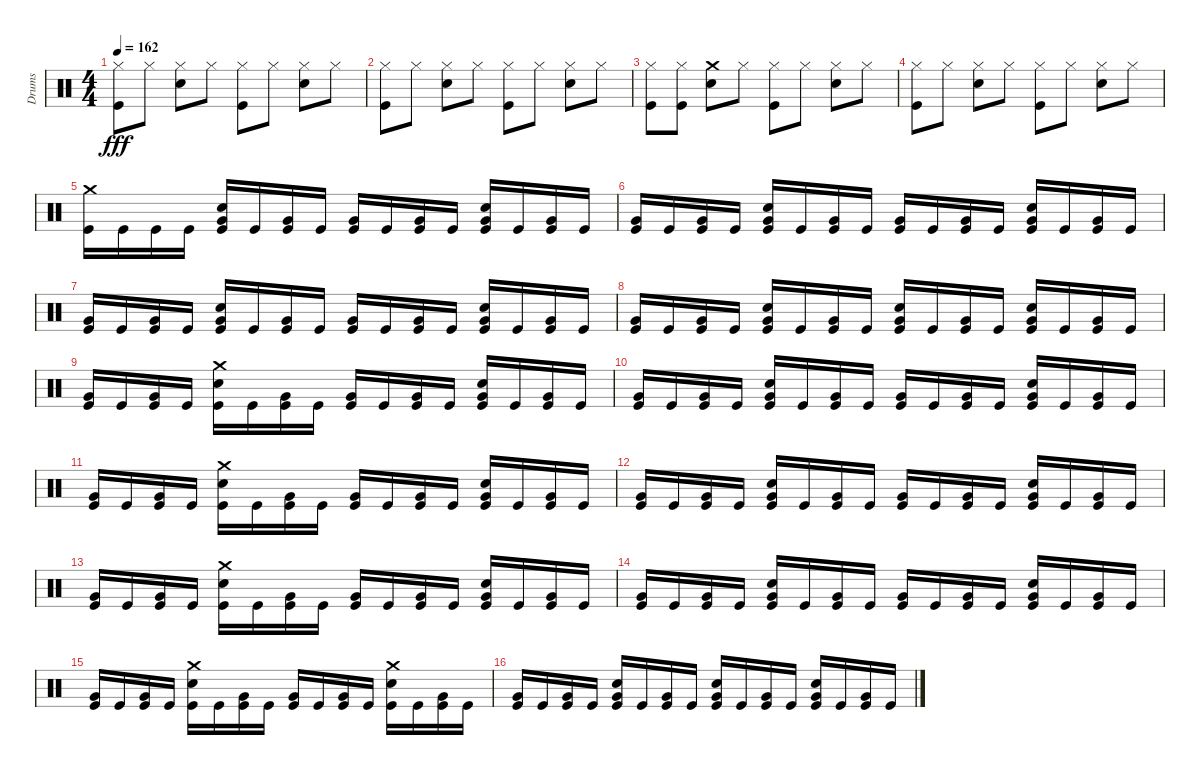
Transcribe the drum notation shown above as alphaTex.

\track ("Drums" "Drums") {instrument percussion}
\staff {score}
\articulation defaults
\ts (4 4)
\tempo 162
\clef neutral
\ks c
("Hi-Hat (closed)" "Kick (hit)").8{dy fff} "Hi-Hat (closed)".8 ("Snare (hit) 2" "Hi-Hat (closed)").8 "Hi-Hat (closed)".8 ("Kick (hit)" "Hi-Hat (closed)").8 "Hi-Hat (closed)".8 ("Snare (hit) 2" "Hi-Hat (closed)").8 "Hi-Hat (closed)".8 |
("Hi-Hat (closed)" "Kick (hit)").8 "Hi-Hat (closed)".8 ("Snare (hit) 2" "Hi-Hat (closed)").8 "Hi-Hat (closed)".8 ("Kick (hit)" "Hi-Hat (closed)").8 "Hi-Hat (closed)".8 ("Snare (hit) 2" "Hi-Hat (closed)").8 "Hi-Hat (closed)".8 |
("Hi-Hat (closed)" "Kick (hit)").8 ("Kick (hit)" "Hi-Hat (closed)").8 ("Crash medium (hit)" "Snare (hit) 2").8 "Hi-Hat (closed)".8 ("Kick (hit)" "Hi-Hat (closed)").8 "Hi-Hat (closed)".8 ("Snare (hit) 2" "Hi-Hat (closed)").8 "Hi-Hat (closed)".8 |
("Hi-Hat (closed)" "Kick (hit)").8 "Hi-Hat (closed)".8 ("Snare (hit) 2" "Hi-Hat (closed)").8 "Hi-Hat (closed)".8 ("Kick (hit)" "Hi-Hat (closed)").8 "Hi-Hat (closed)".8 ("Snare (hit) 2" "Hi-Hat (closed)").8 "Hi-Hat (closed)".8 |
("Crash medium (hit)" "Kick (hit)").16 "Kick (hit)".16 "Kick (hit)".16 "Kick (hit)".16 ("Snare (hit) 2" "Very Low Tom (hit)" "Kick (hit)").16 "Kick (hit)".16 ("Very Low Tom (hit)" "Kick (hit)").16 "Kick (hit)".16 ("Very Low Tom (hit)" "Kick (hit)").16 "Kick (hit)".16 ("Very Low Tom (hit)" "Kick (hit)").16 "Kick (hit)".16 ("Snare (hit) 2" "Very Low Tom (hit)" "Kick (hit)").16 "Kick (hit)".16 ("Very Low Tom (hit)" "Kick (hit)").16 "Kick (hit)".16 |
("Very Low Tom (hit)" "Kick (hit)").16 "Kick (hit)".16 ("Very Low Tom (hit)" "Kick (hit)").16 "Kick (hit)".16 ("Snare (hit) 2" "Very Low Tom (hit)" "Kick (hit)").16 "Kick (hit)".16 ("Very Low Tom (hit)" "Kick (hit)").16 "Kick (hit)".16 ("Very Low Tom (hit)" "Kick (hit)").16 "Kick (hit)".16 ("Very Low Tom (hit)" "Kick (hit)").16 "Kick (hit)".16 ("Snare (hit) 2" "Very Low Tom (hit)" "Kick (hit)").16 "Kick (hit)".16 ("Very Low Tom (hit)" "Kick (hit)").16 "Kick (hit)".16 |
("Very Low Tom (hit)" "Kick (hit)").16 "Kick (hit)".16 ("Very Low Tom (hit)" "Kick (hit)").16 "Kick (hit)".16 ("Snare (hit) 2" "Very Low Tom (hit)" "Kick (hit)").16 "Kick (hit)".16 ("Very Low Tom (hit)" "Kick (hit)").16 "Kick (hit)".16 ("Very Low Tom (hit)" "Kick (hit)").16 "Kick (hit)".16 ("Very Low Tom (hit)" "Kick (hit)").16 "Kick (hit)".16 ("Snare (hit) 2" "Very Low Tom (hit)" "Kick (hit)").16 "Kick (hit)".16 ("Very Low Tom (hit)" "Kick (hit)").16 "Kick (hit)".16 |
("Very Low Tom (hit)" "Kick (hit)").16 "Kick (hit)".16 ("Very Low Tom (hit)" "Kick (hit)").16 "Kick (hit)".16 ("Snare (hit) 2" "Very Low Tom (hit)" "Kick (hit)").16 "Kick (hit)".16 ("Very Low Tom (hit)" "Kick (hit)").16 "Kick (hit)".16 ("Snare (hit) 2" "Very Low Tom (hit)" "Kick (hit)").16 "Kick (hit)".16 ("Very Low Tom (hit)" "Kick (hit)").16 "Kick (hit)".16 ("Snare (hit) 2" "Very Low Tom (hit)" "Kick (hit)").16 "Kick (hit)".16 ("Very Low Tom (hit)" "Kick (hit)").16 "Kick (hit)".16 |
("Very Low Tom (hit)" "Kick (hit)").16 "Kick (hit)".16 ("Very Low Tom (hit)" "Kick (hit)").16 "Kick (hit)".16 ("Crash medium (hit)" "Snare (hit) 2" "Kick (hit)").16 "Kick (hit)".16 ("Very Low Tom (hit)" "Kick (hit)").16 "Kick (hit)".16 ("Very Low Tom (hit)" "Kick (hit)").16 "Kick (hit)".16 ("Very Low Tom (hit)" "Kick (hit)").16 "Kick (hit)".16 ("Snare (hit) 2" "Very Low Tom (hit)" "Kick (hit)").16 "Kick (hit)".16 ("Very Low Tom (hit)" "Kick (hit)").16 "Kick (hit)".16 |
("Very Low Tom (hit)" "Kick (hit)").16 "Kick (hit)".16 ("Very Low Tom (hit)" "Kick (hit)").16 "Kick (hit)".16 ("Snare (hit) 2" "Very Low Tom (hit)" "Kick (hit)").16 "Kick (hit)".16 ("Very Low Tom (hit)" "Kick (hit)").16 "Kick (hit)".16 ("Very Low Tom (hit)" "Kick (hit)").16 "Kick (hit)".16 ("Very Low Tom (hit)" "Kick (hit)").16 "Kick (hit)".16 ("Snare (hit) 2" "Very Low Tom (hit)" "Kick (hit)").16 "Kick (hit)".16 ("Very Low Tom (hit)" "Kick (hit)").16 "Kick (hit)".16 |
("Very Low Tom (hit)" "Kick (hit)").16 "Kick (hit)".16 ("Very Low Tom (hit)" "Kick (hit)").16 "Kick (hit)".16 ("Crash medium (hit)" "Snare (hit) 2" "Kick (hit)").16 "Kick (hit)".16 ("Very Low Tom (hit)" "Kick (hit)").16 "Kick (hit)".16 ("Very Low Tom (hit)" "Kick (hit)").16 "Kick (hit)".16 ("Very Low Tom (hit)" "Kick (hit)").16 "Kick (hit)".16 ("Snare (hit) 2" "Very Low Tom (hit)" "Kick (hit)").16 "Kick (hit)".16 ("Very Low Tom (hit)" "Kick (hit)").16 "Kick (hit)".16 |
("Very Low Tom (hit)" "Kick (hit)").16 "Kick (hit)".16 ("Very Low Tom (hit)" "Kick (hit)").16 "Kick (hit)".16 ("Snare (hit) 2" "Very Low Tom (hit)" "Kick (hit)").16 "Kick (hit)".16 ("Very Low Tom (hit)" "Kick (hit)").16 "Kick (hit)".16 ("Very Low Tom (hit)" "Kick (hit)").16 "Kick (hit)".16 ("Very Low Tom (hit)" "Kick (hit)").16 "Kick (hit)".16 ("Snare (hit) 2" "Very Low Tom (hit)" "Kick (hit)").16 "Kick (hit)".16 ("Very Low Tom (hit)" "Kick (hit)").16 "Kick (hit)".16 |
("Very Low Tom (hit)" "Kick (hit)").16 "Kick (hit)".16 ("Very Low Tom (hit)" "Kick (hit)").16 "Kick (hit)".16 ("Crash medium (hit)" "Snare (hit) 2" "Kick (hit)").16 "Kick (hit)".16 ("Very Low Tom (hit)" "Kick (hit)").16 "Kick (hit)".16 ("Very Low Tom (hit)" "Kick (hit)").16 "Kick (hit)".16 ("Very Low Tom (hit)" "Kick (hit)").16 "Kick (hit)".16 ("Snare (hit) 2" "Very Low Tom (hit)" "Kick (hit)").16 "Kick (hit)".16 ("Very Low Tom (hit)" "Kick (hit)").16 "Kick (hit)".16 |
("Very Low Tom (hit)" "Kick (hit)").16 "Kick (hit)".16 ("Very Low Tom (hit)" "Kick (hit)").16 "Kick (hit)".16 ("Snare (hit) 2" "Very Low Tom (hit)" "Kick (hit)").16 "Kick (hit)".16 ("Very Low Tom (hit)" "Kick (hit)").16 "Kick (hit)".16 ("Very Low Tom (hit)" "Kick (hit)").16 "Kick (hit)".16 ("Very Low Tom (hit)" "Kick (hit)").16 "Kick (hit)".16 ("Snare (hit) 2" "Very Low Tom (hit)" "Kick (hit)").16 "Kick (hit)".16 ("Very Low Tom (hit)" "Kick (hit)").16 "Kick (hit)".16 |
("Very Low Tom (hit)" "Kick (hit)").16 "Kick (hit)".16 ("Very Low Tom (hit)" "Kick (hit)").16 "Kick (hit)".16 ("Crash medium (hit)" "Snare (hit) 2" "Kick (hit)").16 "Kick (hit)".16 ("Very Low Tom (hit)" "Kick (hit)").16 "Kick (hit)".16 ("Very Low Tom (hit)" "Kick (hit)").16 "Kick (hit)".16 ("Very Low Tom (hit)" "Kick (hit)").16 "Kick (hit)".16 ("Crash medium (hit)" "Snare (hit) 2" "Kick (hit)").16 "Kick (hit)".16 ("Very Low Tom (hit)" "Kick (hit)").16 "Kick (hit)".16 |
("Very Low Tom (hit)" "Kick (hit)").16 "Kick (hit)".16 ("Very Low Tom (hit)" "Kick (hit)").16 "Kick (hit)".16 ("Snare (hit) 2" "Very Low Tom (hit)" "Kick (hit)").16 "Kick (hit)".16 ("Very Low Tom (hit)" "Kick (hit)").16 "Kick (hit)".16 ("Snare (hit) 2" "Very Low Tom (hit)" "Kick (hit)").16 "Kick (hit)".16 ("Very Low Tom (hit)" "Kick (hit)").16 "Kick (hit)".16 ("Snare (hit) 2" "Very Low Tom (hit)" "Kick (hit)").16 "Kick (hit)".16 ("Very Low Tom (hit)" "Kick (hit)").16 "Kick (hit)".16
